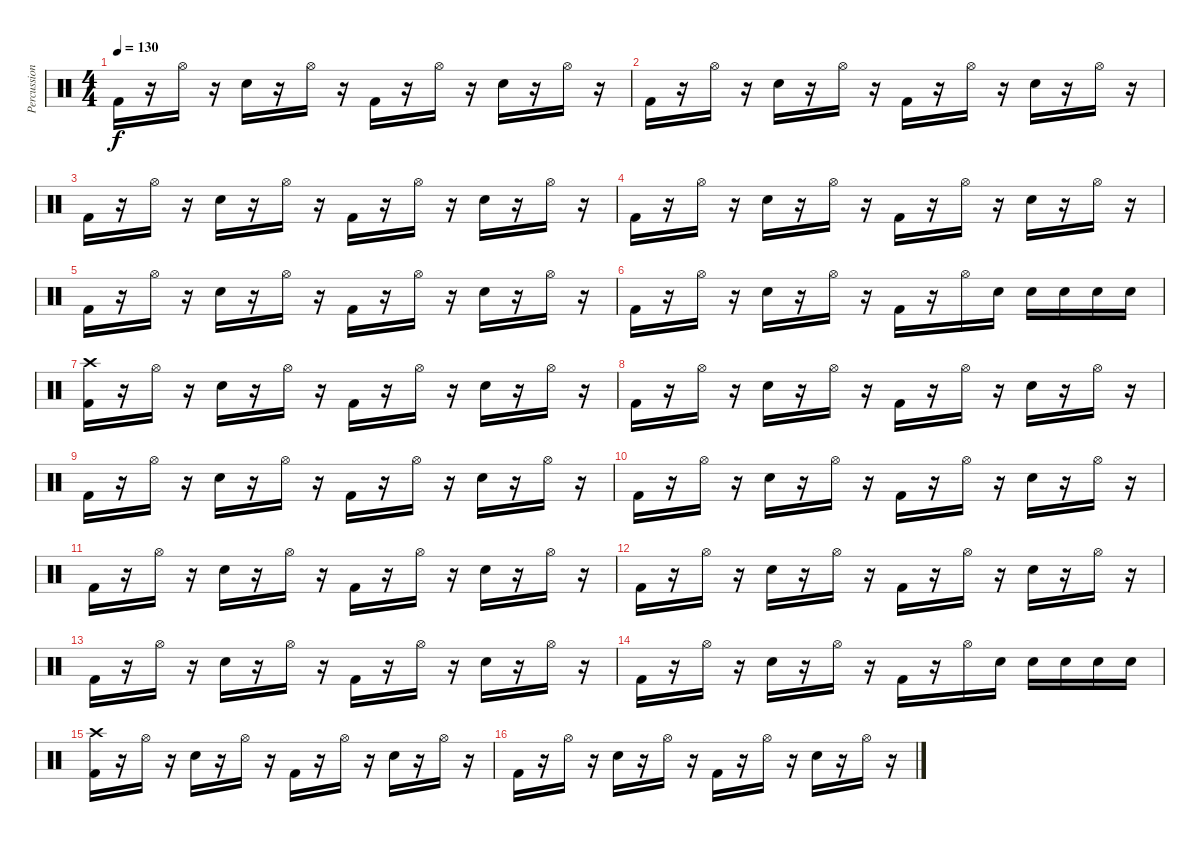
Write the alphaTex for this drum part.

\track ("Percussion" "Percussion") {instrument percussion}
\staff {score}
\articulation defaults
\ts (4 4)
\tempo 130
\clef neutral
\ks c "Kick (hit) 2".16{dy f}
r.16 "Hi-Hat (open)".16 r.16 "Snare (hit) 2".16 r.16 "Hi-Hat (open)".16 r.16 "Kick (hit) 2".16 r.16 "Hi-Hat (open)".16 r.16 "Snare (hit) 2".16 r.16 "Hi-Hat (open)".16 r.16 |
"Kick (hit) 2".16 r.16 "Hi-Hat (open)".16 r.16 "Snare (hit) 2".16 r.16 "Hi-Hat (open)".16 r.16 "Kick (hit) 2".16 r.16 "Hi-Hat (open)".16 r.16 "Snare (hit) 2".16 r.16 "Hi-Hat (open)".16 r.16 |
"Kick (hit) 2".16 r.16 "Hi-Hat (open)".16 r.16 "Snare (hit) 2".16 r.16 "Hi-Hat (open)".16 r.16 "Kick (hit) 2".16 r.16 "Hi-Hat (open)".16 r.16 "Snare (hit) 2".16 r.16 "Hi-Hat (open)".16 r.16 |
"Kick (hit) 2".16 r.16 "Hi-Hat (open)".16 r.16 "Snare (hit) 2".16 r.16 "Hi-Hat (open)".16 r.16 "Kick (hit) 2".16 r.16 "Hi-Hat (open)".16 r.16 "Snare (hit) 2".16 r.16 "Hi-Hat (open)".16 r.16 |
"Kick (hit) 2".16 r.16 "Hi-Hat (open)".16 r.16 "Snare (hit) 2".16 r.16 "Hi-Hat (open)".16 r.16 "Kick (hit) 2".16 r.16 "Hi-Hat (open)".16 r.16 "Snare (hit) 2".16 r.16 "Hi-Hat (open)".16 r.16 |
"Kick (hit) 2".16 r.16 "Hi-Hat (open)".16 r.16 "Snare (hit) 2".16 r.16 "Hi-Hat (open)".16 r.16 "Kick (hit) 2".16 r.16 "Hi-Hat (open)".16 "Snare (hit) 2".16 "Snare (hit) 2".16 "Snare (hit) 2".16 "Snare (hit) 2".16 "Snare (hit) 2".16 |
("Crash high (hit)" "Kick (hit) 2").16 r.16 "Hi-Hat (open)".16 r.16 "Snare (hit) 2".16 r.16 "Hi-Hat (open)".16 r.16 "Kick (hit) 2".16 r.16 "Hi-Hat (open)".16 r.16 "Snare (hit) 2".16 r.16 "Hi-Hat (open)".16 r.16 |
"Kick (hit) 2".16 r.16 "Hi-Hat (open)".16 r.16 "Snare (hit) 2".16 r.16 "Hi-Hat (open)".16 r.16 "Kick (hit) 2".16 r.16 "Hi-Hat (open)".16 r.16 "Snare (hit) 2".16 r.16 "Hi-Hat (open)".16 r.16 |
"Kick (hit) 2".16 r.16 "Hi-Hat (open)".16 r.16 "Snare (hit) 2".16 r.16 "Hi-Hat (open)".16 r.16 "Kick (hit) 2".16 r.16 "Hi-Hat (open)".16 r.16 "Snare (hit) 2".16 r.16 "Hi-Hat (open)".16 r.16 |
"Kick (hit) 2".16 r.16 "Hi-Hat (open)".16 r.16 "Snare (hit) 2".16 r.16 "Hi-Hat (open)".16 r.16 "Kick (hit) 2".16 r.16 "Hi-Hat (open)".16 r.16 "Snare (hit) 2".16 r.16 "Hi-Hat (open)".16 r.16 |
"Kick (hit) 2".16 r.16 "Hi-Hat (open)".16 r.16 "Snare (hit) 2".16 r.16 "Hi-Hat (open)".16 r.16 "Kick (hit) 2".16 r.16 "Hi-Hat (open)".16 r.16 "Snare (hit) 2".16 r.16 "Hi-Hat (open)".16 r.16 |
"Kick (hit) 2".16 r.16 "Hi-Hat (open)".16 r.16 "Snare (hit) 2".16 r.16 "Hi-Hat (open)".16 r.16 "Kick (hit) 2".16 r.16 "Hi-Hat (open)".16 r.16 "Snare (hit) 2".16 r.16 "Hi-Hat (open)".16 r.16 |
"Kick (hit) 2".16 r.16 "Hi-Hat (open)".16 r.16 "Snare (hit) 2".16 r.16 "Hi-Hat (open)".16 r.16 "Kick (hit) 2".16 r.16 "Hi-Hat (open)".16 r.16 "Snare (hit) 2".16 r.16 "Hi-Hat (open)".16 r.16 |
"Kick (hit) 2".16 r.16 "Hi-Hat (open)".16 r.16 "Snare (hit) 2".16 r.16 "Hi-Hat (open)".16 r.16 "Kick (hit) 2".16 r.16 "Hi-Hat (open)".16 "Snare (hit) 2".16 "Snare (hit) 2".16 "Snare (hit) 2".16 "Snare (hit) 2".16 "Snare (hit) 2".16 |
("Crash high (hit)" "Kick (hit) 2").16 r.16 "Hi-Hat (open)".16 r.16 "Snare (hit) 2".16 r.16 "Hi-Hat (open)".16 r.16 "Kick (hit) 2".16 r.16 "Hi-Hat (open)".16 r.16 "Snare (hit) 2".16 r.16 "Hi-Hat (open)".16 r.16 |
"Kick (hit) 2".16 r.16 "Hi-Hat (open)".16 r.16 "Snare (hit) 2".16 r.16 "Hi-Hat (open)".16 r.16 "Kick (hit) 2".16 r.16 "Hi-Hat (open)".16 r.16 "Snare (hit) 2".16 r.16 "Hi-Hat (open)".16 r.16
